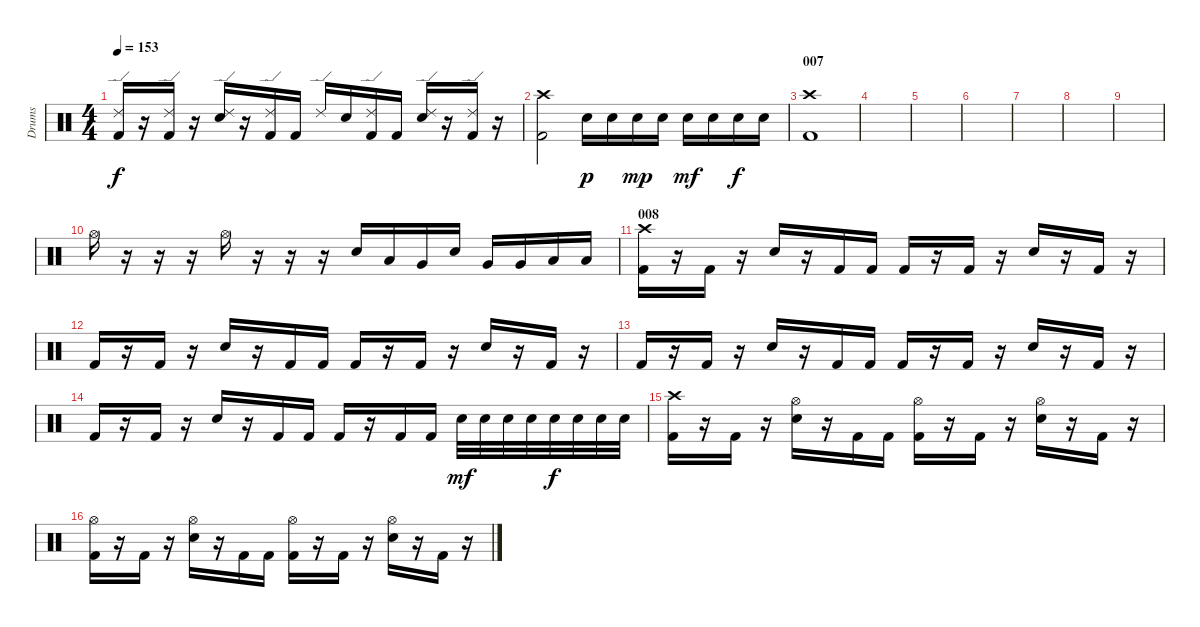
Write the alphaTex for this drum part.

\track ("Drums" "Drums") {instrument percussion}
\staff {score}
\articulation defaults
\ts (4 4)
\tempo 153
\clef neutral
\ks c
("Kick (hit) 2" "Ride (edge) 2").16{dy f} r.16 ("Kick (hit) 2" "Ride (edge) 2").16 r.16 ("Electric Snare (hit)" "Ride (edge) 2").16 r.16 ("Kick (hit) 2" "Ride (edge) 2").16 "Kick (hit) 2".16 "Ride (edge) 2".16 "Electric Snare (hit)".16 ("Kick (hit) 2" "Ride (edge) 2").16 "Kick (hit) 2".16 ("Electric Snare (hit)" "Ride (edge) 2").16 r.16 ("Kick (hit) 2" "Ride (edge) 2").16 r.16 |
("Crash high (hit)" "Kick (hit) 2").2 "Electric Snare (hit)".16{dy p} "Electric Snare (hit)".16 "Electric Snare (hit)".16{dy mp} "Electric Snare (hit)".16 "Electric Snare (hit)".16{dy mf} "Electric Snare (hit)".16 "Electric Snare (hit)".16{dy f} "Electric Snare (hit)".16 |
\section ("" "007")
("Crash high (hit)" "Kick (hit) 2").1 |
|
|
|
|
|
|
"Hi-Hat (open)".16 r.16 r.16 r.16 "Hi-Hat (open)".16 r.16 r.16 r.16 "Electric Snare (hit)".16 "Low Tom (hit)".16 "Very Low Tom (hit)".16 "Electric Snare (hit)".16 "Very Low Tom (hit)".16 "Very Low Tom (hit)".16 "Low Floor Tom (hit)".16 "Low Floor Tom (hit)".16 |
\section ("" "008")
("Kick (hit) 2" "Crash high (hit)").16 r.16 "Kick (hit) 2".16 r.16 "Electric Snare (hit)".16 r.16 "Kick (hit) 2".16 "Kick (hit) 2".16 "Kick (hit) 2".16 r.16 "Kick (hit) 2".16 r.16 "Electric Snare (hit)".16 r.16 "Kick (hit) 2".16 r.16 |
"Kick (hit) 2".16 r.16 "Kick (hit) 2".16 r.16 "Electric Snare (hit)".16 r.16 "Kick (hit) 2".16 "Kick (hit) 2".16 "Kick (hit) 2".16 r.16 "Kick (hit) 2".16 r.16 "Electric Snare (hit)".16 r.16 "Kick (hit) 2".16 r.16 |
"Kick (hit) 2".16 r.16 "Kick (hit) 2".16 r.16 "Electric Snare (hit)".16 r.16 "Kick (hit) 2".16 "Kick (hit) 2".16 "Kick (hit) 2".16 r.16 "Kick (hit) 2".16 r.16 "Electric Snare (hit)".16 r.16 "Kick (hit) 2".16 r.16 |
"Kick (hit) 2".16 r.16 "Kick (hit) 2".16 r.16 "Electric Snare (hit)".16 r.16 "Kick (hit) 2".16 "Kick (hit) 2".16 "Kick (hit) 2".16 r.16 "Kick (hit) 2".16 "Kick (hit) 2".16 "Electric Snare (hit)".32{dy mf} "Electric Snare (hit)".32 "Electric Snare (hit)".32 "Electric Snare (hit)".32 "Electric Snare (hit)".32{dy f} "Electric Snare (hit)".32 "Electric Snare (hit)".32 "Electric Snare (hit)".32 |
("Kick (hit) 2" "Crash high (hit)").16 r.16 "Kick (hit) 2".16 r.16 ("Electric Snare (hit)" "Hi-Hat (open)").16 r.16 "Kick (hit) 2".16 "Kick (hit) 2".16 ("Kick (hit) 2" "Hi-Hat (open)").16 r.16 "Kick (hit) 2".16 r.16 ("Electric Snare (hit)" "Hi-Hat (open)").16 r.16 "Kick (hit) 2".16 r.16 |
("Kick (hit) 2" "Hi-Hat (open)").16 r.16 "Kick (hit) 2".16 r.16 ("Electric Snare (hit)" "Hi-Hat (open)").16 r.16 "Kick (hit) 2".16 "Kick (hit) 2".16 ("Kick (hit) 2" "Hi-Hat (open)").16 r.16 "Kick (hit) 2".16 r.16 ("Electric Snare (hit)" "Hi-Hat (open)").16 r.16 "Kick (hit) 2".16 r.16
